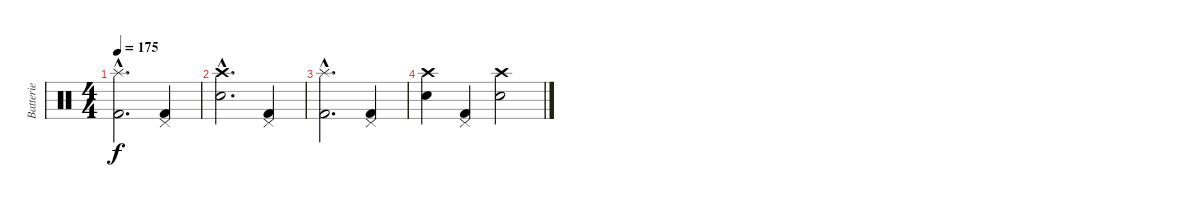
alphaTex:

\track ("Batterie" "Batterie") {instrument percussion}
\staff {score}
\articulation defaults
\ts (4 4)
\tempo 175
\clef neutral
\ks c
("Splash (hit)"{hac} "Kick (hit) 2"{hac}).2{d dy f} ("Pedal Hi-Hat (hit)" "Kick (hit) 2").4 |
("Crash high (hit)"{hac} "Snare (hit) 2"{hac}).2{d} ("Pedal Hi-Hat (hit)" "Kick (hit) 2").4 |
("Splash (hit)"{hac} "Kick (hit) 2"{hac}).2{d} ("Pedal Hi-Hat (hit)" "Kick (hit) 2").4 |
("Crash high (hit)" "Snare (hit) 2").4 ("Pedal Hi-Hat (hit)" "Kick (hit) 2").4 ("Crash high (hit)" "Snare (hit) 2").2
